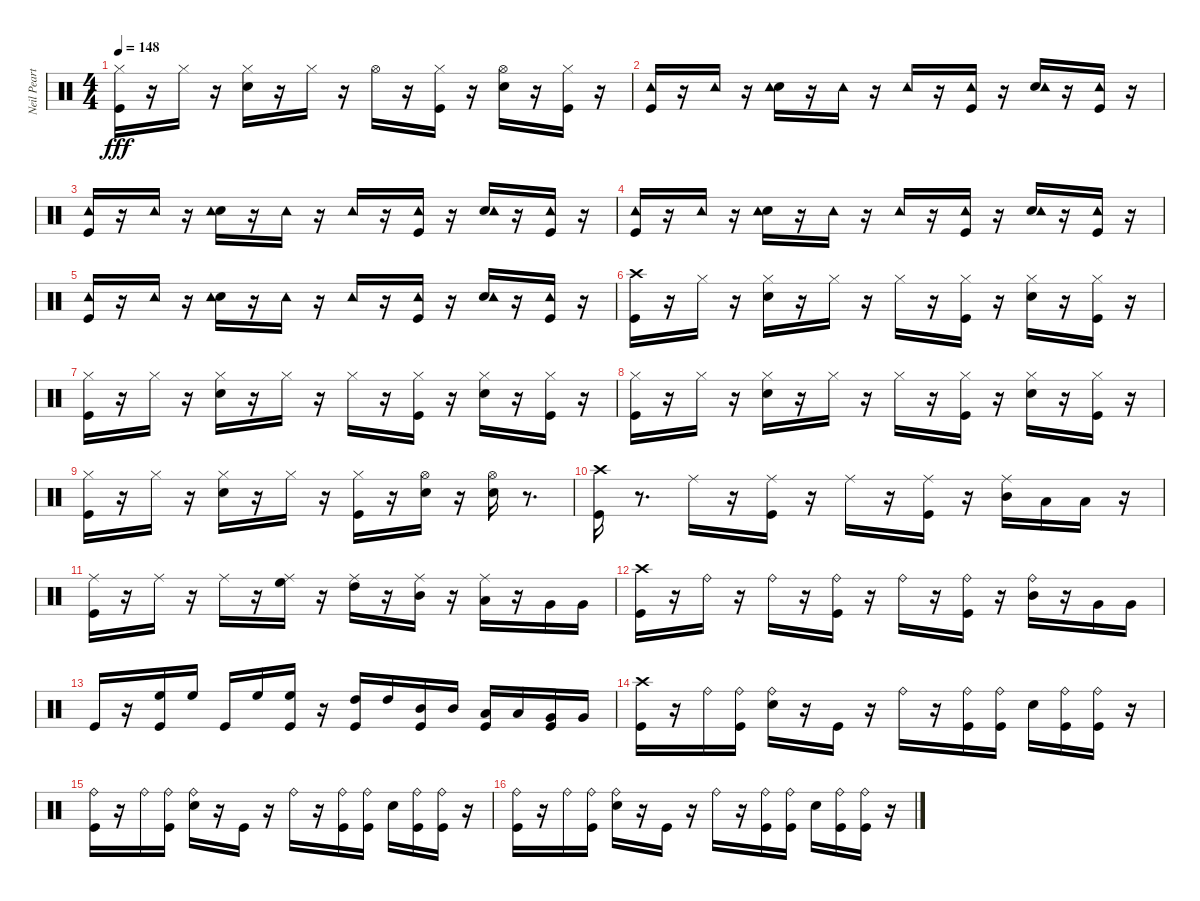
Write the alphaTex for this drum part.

\track ("Neil Peart" "Neil Peart") {instrument percussion}
\staff {score}
\articulation defaults
\ts (4 4)
\tempo 148
\clef neutral
\ks c
("Hi-Hat (closed)" "Kick (hit)").16{dy fff} r.16 "Hi-Hat (closed)".16 r.16 ("Hi-Hat (closed)" "Snare (hit) 2").16 r.16 "Hi-Hat (closed)".16 r.16 "Hi-Hat (open)".16 r.16 ("Hi-Hat (closed)" "Kick (hit)").16 r.16 ("Hi-Hat (open)" "Snare (hit) 2").16 r.16 ("Hi-Hat (closed)" "Kick (hit)").16 r.16 |
("Kick (hit)" "Tambourine (hit)").16 r.16 "Tambourine (hit)".16 r.16 ("Snare (hit) 2" "Tambourine (hit)").16 r.16 "Tambourine (hit)".16 r.16 "Tambourine (hit)".16 r.16 ("Kick (hit)" "Tambourine (hit)").16 r.16 ("Snare (hit) 2" "Tambourine (hit)").16 r.16 ("Kick (hit)" "Tambourine (hit)").16 r.16 |
("Kick (hit)" "Tambourine (hit)").16 r.16 "Tambourine (hit)".16 r.16 ("Snare (hit) 2" "Tambourine (hit)").16 r.16 "Tambourine (hit)".16 r.16 "Tambourine (hit)".16 r.16 ("Kick (hit)" "Tambourine (hit)").16 r.16 ("Snare (hit) 2" "Tambourine (hit)").16 r.16 ("Kick (hit)" "Tambourine (hit)").16 r.16 |
("Kick (hit)" "Tambourine (hit)").16 r.16 "Tambourine (hit)".16 r.16 ("Snare (hit) 2" "Tambourine (hit)").16 r.16 "Tambourine (hit)".16 r.16 "Tambourine (hit)".16 r.16 ("Kick (hit)" "Tambourine (hit)").16 r.16 ("Snare (hit) 2" "Tambourine (hit)").16 r.16 ("Kick (hit)" "Tambourine (hit)").16 r.16 |
("Kick (hit)" "Tambourine (hit)").16 r.16 "Tambourine (hit)".16 r.16 ("Snare (hit) 2" "Tambourine (hit)").16 r.16 "Tambourine (hit)".16 r.16 "Tambourine (hit)".16 r.16 ("Kick (hit)" "Tambourine (hit)").16 r.16 ("Snare (hit) 2" "Tambourine (hit)").16 r.16 ("Kick (hit)" "Tambourine (hit)").16 r.16 |
("Crash high (hit)" "Kick (hit)").16 r.16 "Hi-Hat (closed)".16 r.16 ("Hi-Hat (closed)" "Snare (hit) 2").16 r.16 "Hi-Hat (closed)".16 r.16 "Hi-Hat (closed)".16 r.16 ("Hi-Hat (closed)" "Kick (hit)").16 r.16 ("Hi-Hat (closed)" "Snare (hit) 2").16 r.16 ("Hi-Hat (closed)" "Kick (hit)").16 r.16 |
("Hi-Hat (closed)" "Kick (hit)").16 r.16 "Hi-Hat (closed)".16 r.16 ("Hi-Hat (closed)" "Snare (hit) 2").16 r.16 "Hi-Hat (closed)".16 r.16 "Hi-Hat (closed)".16 r.16 ("Hi-Hat (closed)" "Kick (hit)").16 r.16 ("Hi-Hat (closed)" "Snare (hit) 2").16 r.16 ("Hi-Hat (closed)" "Kick (hit)").16 r.16 |
("Hi-Hat (closed)" "Kick (hit)").16 r.16 "Hi-Hat (closed)".16 r.16 ("Hi-Hat (closed)" "Snare (hit) 2").16 r.16 "Hi-Hat (closed)".16 r.16 "Hi-Hat (closed)".16 r.16 ("Hi-Hat (closed)" "Kick (hit)").16 r.16 ("Hi-Hat (closed)" "Snare (hit) 2").16 r.16 ("Hi-Hat (closed)" "Kick (hit)").16 r.16 |
("Hi-Hat (closed)" "Kick (hit)").16 r.16 "Hi-Hat (closed)".16 r.16 ("Hi-Hat (closed)" "Snare (hit) 2").16 r.16 "Hi-Hat (closed)".16 r.16 ("Hi-Hat (closed)" "Kick (hit)").16 r.16 ("Hi-Hat (open)" "Snare (hit) 2").16 r.16 ("Hi-Hat (open)" "Snare (hit) 2").16 r.8{d} |
("Crash high (hit)" "Kick (hit)").16 r.8{d} "Ride (middle)".16 r.16 ("Kick (hit)" "Ride (middle)").16 r.16 "Ride (middle)".16 r.16 ("Kick (hit)" "Ride (middle)").16 r.16 ("Mid Tom (hit)" "Ride (middle)").16 "Low Floor Tom (hit)".16 "Low Floor Tom (hit)".16 r.16 |
("Ride (middle)" "Kick (hit)").16 r.16 "Ride (middle)".16 r.16 "Ride (middle)".16 r.16 ("Ride (middle)" "High Floor Tom (hit)").16 r.16 ("Ride (middle)" "High Tom (hit)").16 r.16 ("Ride (middle)" "Mid Tom (hit)").16 r.16 ("Ride (middle)" "Low Tom (hit)").16 r.16 "Very Low Tom (hit)".16 "Very Low Tom (hit)".16 |
("Crash high (hit)" "Kick (hit)").16 r.16 "Ride (bell)".16 r.16 "Ride (bell)".16 r.16 ("Kick (hit)" "Ride (bell)").16 r.16 "Ride (bell)".16 r.16 ("Kick (hit)" "Ride (bell)").16 r.16 ("Mid Tom (hit)" "Ride (bell)").16 r.16 "Very Low Tom (hit)".16 "Very Low Tom (hit)".16 |
"Kick (hit)".16 r.16 ("Kick (hit)" "High Floor Tom (hit)").16 "High Floor Tom (hit)".16 "Kick (hit)".16 "High Floor Tom (hit)".16 ("Kick (hit)" "High Floor Tom (hit)").16 r.16 ("Kick (hit)" "High Tom (hit)").16 "High Tom (hit)".16 ("Kick (hit)" "Mid Tom (hit)").16 "Mid Tom (hit)".16 ("Kick (hit)" "Low Tom (hit)").16 "Low Tom (hit)".16 ("Kick (hit)" "Very Low Tom (hit)").16 "Very Low Tom (hit)".16 |
("Crash high (hit)" "Kick (hit)").16 r.16 "Ride (bell)".16 ("Kick (hit)" "Ride (bell)").16 ("Snare (hit) 2" "Ride (bell)").16 r.16 "Kick (hit)".16 r.16 "Ride (bell)".16 r.16 ("Kick (hit)" "Ride (bell)").16 ("Kick (hit)" "Ride (bell)").16 "Snare (hit) 2".16 ("Kick (hit)" "Ride (bell)").16 ("Kick (hit)" "Ride (bell)").16 r.16 |
("Kick (hit)" "Ride (bell)").16 r.16 "Ride (bell)".16 ("Kick (hit)" "Ride (bell)").16 ("Snare (hit) 2" "Ride (bell)").16 r.16 "Kick (hit)".16 r.16 "Ride (bell)".16 r.16 ("Kick (hit)" "Ride (bell)").16 ("Kick (hit)" "Ride (bell)").16 "Snare (hit) 2".16 ("Kick (hit)" "Ride (bell)").16 ("Kick (hit)" "Ride (bell)").16 r.16 |
("Kick (hit)" "Ride (bell)").16 r.16 "Ride (bell)".16 ("Kick (hit)" "Ride (bell)").16 ("Snare (hit) 2" "Ride (bell)").16 r.16 "Kick (hit)".16 r.16 "Ride (bell)".16 r.16 ("Kick (hit)" "Ride (bell)").16 ("Kick (hit)" "Ride (bell)").16 "Snare (hit) 2".16 ("Kick (hit)" "Ride (bell)").16 ("Kick (hit)" "Ride (bell)").16 r.16
